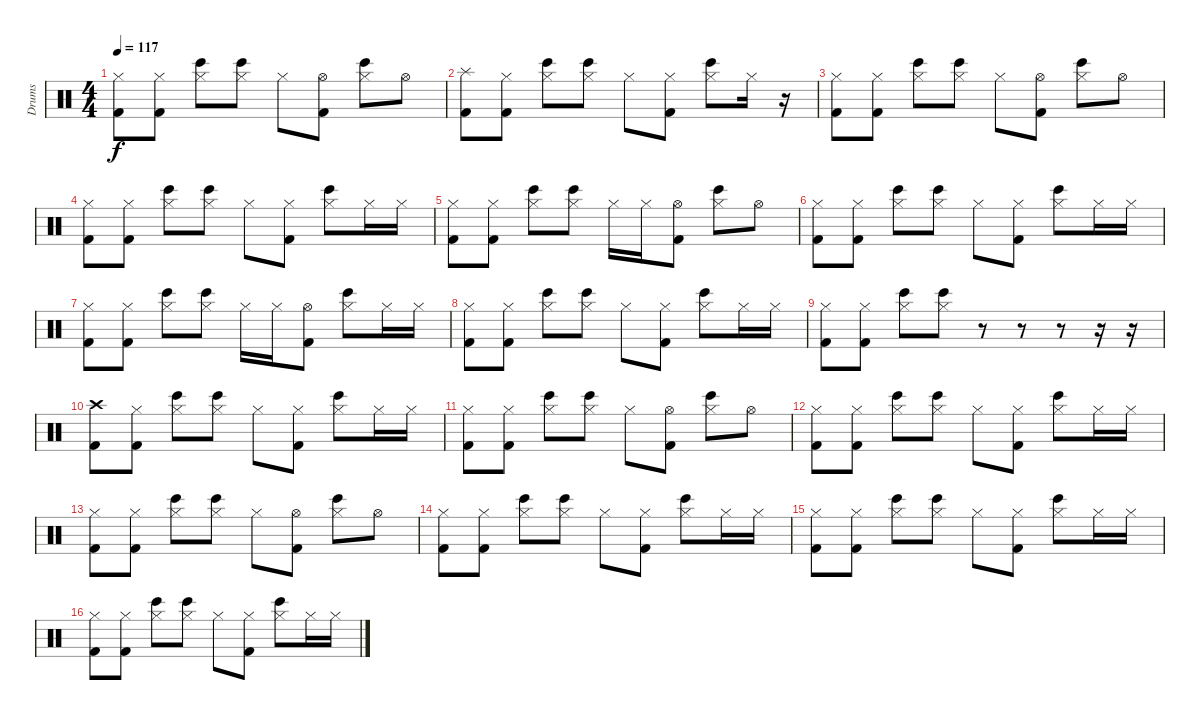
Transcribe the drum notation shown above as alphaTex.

\track ("Drums" "Drums") {instrument percussion}
\staff {score}
\articulation defaults
\ts (4 4)
\tempo 117
\clef neutral
\ks c
("Hi-Hat (closed)" "Kick (hit) 2").8{dy f} ("Hi-Hat (closed)" "Kick (hit) 2").8 ("Hi-Hat (closed)" "Bongo High (hit)").8 ("Hi-Hat (closed)" "Bongo High (hit)").8 "Hi-Hat (closed)".8 ("Hi-Hat (open)" "Kick (hit) 2").8 ("Hi-Hat (closed)" "Bongo High (hit)").8 "Hi-Hat (open)".8 |
("Splash (hit)" "Kick (hit) 2").8 ("Hi-Hat (closed)" "Kick (hit) 2").8 ("Hi-Hat (closed)" "Bongo High (hit)").8 ("Hi-Hat (closed)" "Bongo High (hit)").8 "Hi-Hat (closed)".8 ("Hi-Hat (closed)" "Kick (hit) 2").8 ("Hi-Hat (closed)" "Bongo High (hit)").8 "Hi-Hat (closed)".16 r.16 |
("Hi-Hat (closed)" "Kick (hit) 2").8 ("Hi-Hat (closed)" "Kick (hit) 2").8 ("Hi-Hat (closed)" "Bongo High (hit)").8 ("Hi-Hat (closed)" "Bongo High (hit)").8 "Hi-Hat (closed)".8 ("Hi-Hat (open)" "Kick (hit) 2").8 ("Hi-Hat (closed)" "Bongo High (hit)").8 "Hi-Hat (open)".8 |
("Hi-Hat (closed)" "Kick (hit) 2").8 ("Hi-Hat (closed)" "Kick (hit) 2").8 ("Hi-Hat (closed)" "Bongo High (hit)").8 ("Hi-Hat (closed)" "Bongo High (hit)").8 "Hi-Hat (closed)".8 ("Hi-Hat (closed)" "Kick (hit) 2").8 ("Hi-Hat (closed)" "Bongo High (hit)").8 "Hi-Hat (closed)".16 "Hi-Hat (closed)".16 |
("Hi-Hat (closed)" "Kick (hit) 2").8 ("Hi-Hat (closed)" "Kick (hit) 2").8 ("Hi-Hat (closed)" "Bongo High (hit)").8 ("Hi-Hat (closed)" "Bongo High (hit)").8 "Hi-Hat (closed)".16 "Hi-Hat (closed)".16 ("Hi-Hat (open)" "Kick (hit) 2").8 ("Hi-Hat (closed)" "Bongo High (hit)").8 "Hi-Hat (open)".8 |
("Hi-Hat (closed)" "Kick (hit) 2").8 ("Hi-Hat (closed)" "Kick (hit) 2").8 ("Hi-Hat (closed)" "Bongo High (hit)").8 ("Hi-Hat (closed)" "Bongo High (hit)").8 "Hi-Hat (closed)".8 ("Hi-Hat (closed)" "Kick (hit) 2").8 ("Hi-Hat (closed)" "Bongo High (hit)").8 "Hi-Hat (closed)".16 "Hi-Hat (closed)".16 |
("Hi-Hat (closed)" "Kick (hit) 2").8 ("Hi-Hat (closed)" "Kick (hit) 2").8 ("Hi-Hat (closed)" "Bongo High (hit)").8 ("Hi-Hat (closed)" "Bongo High (hit)").8 "Hi-Hat (closed)".16 "Hi-Hat (closed)".16 ("Hi-Hat (open)" "Kick (hit) 2").8 ("Hi-Hat (closed)" "Bongo High (hit)").8 "Hi-Hat (closed)".16 "Hi-Hat (closed)".16 |
("Hi-Hat (closed)" "Kick (hit) 2").8 ("Hi-Hat (closed)" "Kick (hit) 2").8 ("Hi-Hat (closed)" "Bongo High (hit)").8 ("Hi-Hat (closed)" "Bongo High (hit)").8 "Hi-Hat (closed)".8 ("Hi-Hat (closed)" "Kick (hit) 2").8 ("Hi-Hat (closed)" "Bongo High (hit)").8 "Hi-Hat (closed)".16 "Hi-Hat (closed)".16 |
("Hi-Hat (closed)" "Kick (hit) 2").8 ("Hi-Hat (closed)" "Kick (hit) 2").8 ("Hi-Hat (closed)" "Bongo High (hit)").8 ("Hi-Hat (closed)" "Bongo High (hit)").8 r.8 r.8 r.8 r.16 r.16 |
("Crash high (hit)" "Kick (hit) 2").8 ("Hi-Hat (closed)" "Kick (hit) 2").8 ("Hi-Hat (closed)" "Bongo High (hit)").8 ("Hi-Hat (closed)" "Bongo High (hit)").8 "Hi-Hat (closed)".8 ("Hi-Hat (closed)" "Kick (hit) 2").8 ("Hi-Hat (closed)" "Bongo High (hit)").8 "Hi-Hat (closed)".16 "Hi-Hat (closed)".16 |
("Hi-Hat (closed)" "Kick (hit) 2").8 ("Hi-Hat (closed)" "Kick (hit) 2").8 ("Hi-Hat (closed)" "Bongo High (hit)").8 ("Hi-Hat (closed)" "Bongo High (hit)").8 "Hi-Hat (closed)".8 ("Hi-Hat (open)" "Kick (hit) 2").8 ("Hi-Hat (closed)" "Bongo High (hit)").8 "Hi-Hat (open)".8 |
("Hi-Hat (closed)" "Kick (hit) 2").8 ("Hi-Hat (closed)" "Kick (hit) 2").8 ("Hi-Hat (closed)" "Bongo High (hit)").8 ("Hi-Hat (closed)" "Bongo High (hit)").8 "Hi-Hat (closed)".8 ("Hi-Hat (closed)" "Kick (hit) 2").8 ("Hi-Hat (closed)" "Bongo High (hit)").8 "Hi-Hat (closed)".16 "Hi-Hat (closed)".16 |
("Hi-Hat (closed)" "Kick (hit) 2").8 ("Hi-Hat (closed)" "Kick (hit) 2").8 ("Hi-Hat (closed)" "Bongo High (hit)").8 ("Hi-Hat (closed)" "Bongo High (hit)").8 "Hi-Hat (closed)".8 ("Hi-Hat (open)" "Kick (hit) 2").8 ("Hi-Hat (closed)" "Bongo High (hit)").8 "Hi-Hat (open)".8 |
("Hi-Hat (closed)" "Kick (hit) 2").8 ("Hi-Hat (closed)" "Kick (hit) 2").8 ("Hi-Hat (closed)" "Bongo High (hit)").8 ("Hi-Hat (closed)" "Bongo High (hit)").8 "Hi-Hat (closed)".8 ("Hi-Hat (closed)" "Kick (hit) 2").8 ("Hi-Hat (closed)" "Bongo High (hit)").8 "Hi-Hat (closed)".16 "Hi-Hat (closed)".16 |
("Hi-Hat (closed)" "Kick (hit) 2").8 ("Hi-Hat (closed)" "Kick (hit) 2").8 ("Hi-Hat (closed)" "Bongo High (hit)").8 ("Hi-Hat (closed)" "Bongo High (hit)").8 "Hi-Hat (closed)".8 ("Hi-Hat (closed)" "Kick (hit) 2").8 ("Hi-Hat (closed)" "Bongo High (hit)").8 "Hi-Hat (closed)".16 "Hi-Hat (closed)".16 |
("Hi-Hat (closed)" "Kick (hit) 2").8 ("Hi-Hat (closed)" "Kick (hit) 2").8 ("Hi-Hat (closed)" "Bongo High (hit)").8 ("Hi-Hat (closed)" "Bongo High (hit)").8 "Hi-Hat (closed)".8 ("Hi-Hat (closed)" "Kick (hit) 2").8 ("Hi-Hat (closed)" "Bongo High (hit)").8 "Hi-Hat (closed)".16 "Hi-Hat (closed)".16
